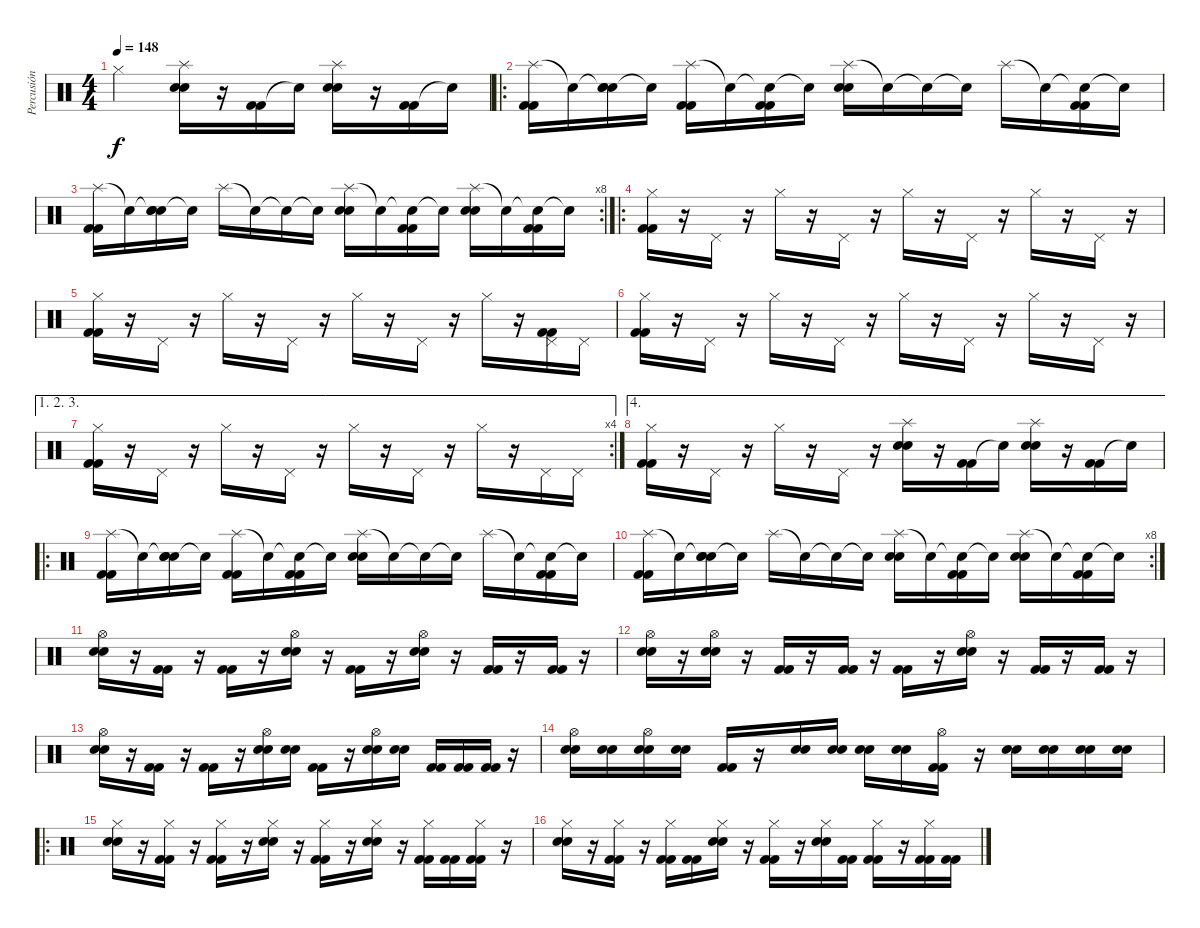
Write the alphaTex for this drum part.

\track ("Percusión" "Percusión") {instrument percussion}
\staff {score}
\articulation defaults
\ts (4 4)
\tempo 148
\clef neutral
\ks c "Hi-Hat (closed)".2{dy f}
("Splash (hit)" "Electric Snare (hit)" "Electric Snare (hit)").16 r.16 ("Kick (hit) 2" "Kick (hit) 2").16 "Snare (hit)"{t}.16 ("Splash (hit)" "Electric Snare (hit)" "Electric Snare (hit)").16 r.16 ("Kick (hit) 2" "Kick (hit) 2").16 "Snare (hit)"{t}.16 |
\ro
("Splash (hit)" "Kick (hit) 2" "Kick (hit) 2").16 "Snare (hit)"{t}.16 ("Snare (hit)"{t} "Electric Snare (hit)" "Electric Snare (hit)").16 "Snare (hit)"{t}.16 ("Splash (hit)" "Kick (hit) 2" "Kick (hit) 2").16 "Snare (hit)"{t}.16 ("Snare (hit)"{t} "Kick (hit) 2" "Kick (hit) 2").16 "Snare (hit)"{t}.16 ("Splash (hit)" "Electric Snare (hit)" "Electric Snare (hit)").16 "Snare (hit)"{t}.16 "Snare (hit)"{t}.16 "Snare (hit)"{t}.16 "Splash (hit)".16 "Snare (hit)"{t}.16 ("Snare (hit)"{t} "Kick (hit) 2" "Kick (hit) 2").16 "Snare (hit)"{t}.16 |
\rc 8
("Splash (hit)" "Kick (hit) 2" "Kick (hit) 2").16 "Snare (hit)"{t}.16 ("Snare (hit)"{t} "Electric Snare (hit)" "Electric Snare (hit)").16 "Snare (hit)"{t}.16 "Splash (hit)".16 "Snare (hit)"{t}.16 "Snare (hit)"{t}.16 "Snare (hit)"{t}.16 ("Splash (hit)" "Electric Snare (hit)" "Electric Snare (hit)").16 "Snare (hit)"{t}.16 ("Snare (hit)"{t} "Kick (hit) 2" "Kick (hit) 2").16 "Snare (hit)"{t}.16 ("Splash (hit)" "Electric Snare (hit)" "Electric Snare (hit)").16 "Snare (hit)"{t}.16 ("Snare (hit)"{t} "Kick (hit) 2" "Kick (hit) 2").16 "Snare (hit)"{t}.16 |
\ro
("Hi-Hat (closed)" "Kick (hit) 2" "Kick (hit) 2").16 r.16 "Pedal Hi-Hat (hit)".16 r.16 "Hi-Hat (closed)".16 r.16 "Pedal Hi-Hat (hit)".16 r.16 "Hi-Hat (closed)".16 r.16 "Pedal Hi-Hat (hit)".16 r.16 "Hi-Hat (closed)".16 r.16 "Pedal Hi-Hat (hit)".16 r.16 |
("Hi-Hat (closed)" "Kick (hit) 2" "Kick (hit) 2").16 r.16 "Pedal Hi-Hat (hit)".16 r.16 "Hi-Hat (closed)".16 r.16 "Pedal Hi-Hat (hit)".16 r.16 "Hi-Hat (closed)".16 r.16 "Pedal Hi-Hat (hit)".16 r.16 "Hi-Hat (closed)".16 r.16 ("Pedal Hi-Hat (hit)" "Kick (hit) 2" "Kick (hit) 2").16 "Pedal Hi-Hat (hit)".16 |
("Hi-Hat (closed)" "Kick (hit) 2" "Kick (hit) 2").16 r.16 "Pedal Hi-Hat (hit)".16 r.16 "Hi-Hat (closed)".16 r.16 "Pedal Hi-Hat (hit)".16 r.16 "Hi-Hat (closed)".16 r.16 "Pedal Hi-Hat (hit)".16 r.16 "Hi-Hat (closed)".16 r.16 "Pedal Hi-Hat (hit)".16 r.16 |
\ae (1 2 3)
\rc 4
("Hi-Hat (closed)" "Kick (hit) 2" "Kick (hit) 2").16 r.16 "Pedal Hi-Hat (hit)".16 r.16 "Hi-Hat (closed)".16 r.16 "Pedal Hi-Hat (hit)".16 r.16 "Hi-Hat (closed)".16 r.16 "Pedal Hi-Hat (hit)".16 r.16 "Hi-Hat (closed)".16 r.16 "Pedal Hi-Hat (hit)".16 "Pedal Hi-Hat (hit)".16 |
\ae 4
("Hi-Hat (closed)" "Kick (hit) 2" "Kick (hit) 2").16 r.16 "Pedal Hi-Hat (hit)".16 r.16 "Hi-Hat (closed)".16 r.16 "Pedal Hi-Hat (hit)".16 r.16 ("Splash (hit)" "Electric Snare (hit)" "Electric Snare (hit)").16 r.16 ("Kick (hit) 2" "Kick (hit) 2").16 "Snare (hit)"{t}.16 ("Splash (hit)" "Electric Snare (hit)" "Electric Snare (hit)").16 r.16 ("Kick (hit) 2" "Kick (hit) 2").16 "Snare (hit)"{t}.16 |
\ro
("Splash (hit)" "Kick (hit) 2" "Kick (hit) 2").16 "Snare (hit)"{t}.16 ("Snare (hit)"{t} "Electric Snare (hit)" "Electric Snare (hit)").16 "Snare (hit)"{t}.16 ("Splash (hit)" "Kick (hit) 2" "Kick (hit) 2").16 "Snare (hit)"{t}.16 ("Snare (hit)"{t} "Kick (hit) 2" "Kick (hit) 2").16 "Snare (hit)"{t}.16 ("Splash (hit)" "Electric Snare (hit)" "Electric Snare (hit)").16 "Snare (hit)"{t}.16 "Snare (hit)"{t}.16 "Snare (hit)"{t}.16 "Splash (hit)".16 "Snare (hit)"{t}.16 ("Snare (hit)"{t} "Kick (hit) 2" "Kick (hit) 2").16 "Snare (hit)"{t}.16 |
\rc 8
("Splash (hit)" "Kick (hit) 2" "Kick (hit) 2").16 "Snare (hit)"{t}.16 ("Snare (hit)"{t} "Electric Snare (hit)" "Electric Snare (hit)").16 "Snare (hit)"{t}.16 "Splash (hit)".16 "Snare (hit)"{t}.16 "Snare (hit)"{t}.16 "Snare (hit)"{t}.16 ("Splash (hit)" "Electric Snare (hit)" "Electric Snare (hit)").16 "Snare (hit)"{t}.16 ("Snare (hit)"{t} "Kick (hit) 2" "Kick (hit) 2").16 "Snare (hit)"{t}.16 ("Splash (hit)" "Electric Snare (hit)" "Electric Snare (hit)").16 "Snare (hit)"{t}.16 ("Snare (hit)"{t} "Kick (hit) 2" "Kick (hit) 2").16 "Snare (hit)"{t}.16 |
("Hi-Hat (open)" "Electric Snare (hit)" "Electric Snare (hit)").16 r.16 ("Kick (hit) 2" "Kick (hit) 2").16 r.16 ("Kick (hit) 2" "Kick (hit) 2").16 r.16 ("Hi-Hat (open)" "Electric Snare (hit)" "Electric Snare (hit)").16 r.16 ("Kick (hit) 2" "Kick (hit) 2").16 r.16 ("Hi-Hat (open)" "Electric Snare (hit)" "Electric Snare (hit)").16 r.16 ("Kick (hit) 2" "Kick (hit) 2").16 r.16 ("Kick (hit) 2" "Kick (hit) 2").16 r.16 |
("Hi-Hat (open)" "Electric Snare (hit)" "Electric Snare (hit)").16 r.16 ("Hi-Hat (open)" "Electric Snare (hit)" "Electric Snare (hit)").16 r.16 ("Kick (hit) 2" "Kick (hit) 2").16 r.16 ("Kick (hit) 2" "Kick (hit) 2").16 r.16 ("Kick (hit) 2" "Kick (hit) 2").16 r.16 ("Hi-Hat (open)" "Electric Snare (hit)" "Electric Snare (hit)").16 r.16 ("Kick (hit) 2" "Kick (hit) 2").16 r.16 ("Kick (hit) 2" "Kick (hit) 2").16 r.16 |
("Hi-Hat (open)" "Electric Snare (hit)" "Electric Snare (hit)").16 r.16 ("Kick (hit) 2" "Kick (hit) 2").16 r.16 ("Kick (hit) 2" "Kick (hit) 2").16 r.16 ("Hi-Hat (open)" "Electric Snare (hit)" "Electric Snare (hit)").16 ("Electric Snare (hit)" "Electric Snare (hit)").16 ("Kick (hit) 2" "Kick (hit) 2").16 r.16 ("Hi-Hat (open)" "Electric Snare (hit)" "Electric Snare (hit)").16 ("Electric Snare (hit)" "Electric Snare (hit)").16 ("Kick (hit) 2" "Kick (hit) 2").16 ("Kick (hit) 2" "Kick (hit) 2").16 ("Kick (hit) 2" "Kick (hit) 2").16 r.16 |
("Hi-Hat (open)" "Electric Snare (hit)" "Electric Snare (hit)").16 ("Electric Snare (hit)" "Electric Snare (hit)").16 ("Hi-Hat (open)" "Electric Snare (hit)" "Electric Snare (hit)").16 ("Electric Snare (hit)" "Electric Snare (hit)").16 ("Kick (hit) 2" "Kick (hit) 2").16 r.16 ("Electric Snare (hit)" "Electric Snare (hit)").16 ("Electric Snare (hit)" "Electric Snare (hit)").16 ("Electric Snare (hit)" "Electric Snare (hit)").16 ("Electric Snare (hit)" "Electric Snare (hit)").16 ("Hi-Hat (open)" "Kick (hit) 2" "Kick (hit) 2").16 r.16 ("Electric Snare (hit)" "Electric Snare (hit)").16 ("Electric Snare (hit)" "Electric Snare (hit)").16 ("Electric Snare (hit)" "Electric Snare (hit)").16 ("Electric Snare (hit)" "Electric Snare (hit)").16 |
\ro
("Hi-Hat (closed)" "Electric Snare (hit)" "Electric Snare (hit)").16 r.16 ("Hi-Hat (closed)" "Kick (hit) 2" "Kick (hit) 2").16 r.16 ("Hi-Hat (closed)" "Kick (hit) 2" "Kick (hit) 2").16 r.16 ("Hi-Hat (closed)" "Electric Snare (hit)" "Electric Snare (hit)").16 r.16 ("Hi-Hat (closed)" "Kick (hit) 2" "Kick (hit) 2").16 r.16 ("Hi-Hat (closed)" "Electric Snare (hit)" "Electric Snare (hit)").16 r.16 ("Hi-Hat (closed)" "Kick (hit) 2" "Kick (hit) 2").16 ("Kick (hit) 2" "Kick (hit) 2").16 ("Hi-Hat (closed)" "Kick (hit) 2" "Kick (hit) 2").16 r.16 |
("Hi-Hat (closed)" "Electric Snare (hit)" "Electric Snare (hit)").16 r.16 ("Hi-Hat (closed)" "Kick (hit) 2" "Kick (hit) 2").16 r.16 ("Hi-Hat (closed)" "Kick (hit) 2" "Kick (hit) 2").16 ("Kick (hit) 2" "Kick (hit) 2").16 ("Hi-Hat (closed)" "Electric Snare (hit)" "Electric Snare (hit)").16 r.16 ("Hi-Hat (closed)" "Kick (hit) 2" "Kick (hit) 2").16 r.16 ("Hi-Hat (closed)" "Electric Snare (hit)" "Electric Snare (hit)").16 ("Kick (hit) 2" "Kick (hit) 2").16 ("Hi-Hat (closed)" "Kick (hit) 2" "Kick (hit) 2").16 r.16 ("Hi-Hat (closed)" "Kick (hit) 2" "Kick (hit) 2").16 ("Kick (hit) 2" "Kick (hit) 2").16
